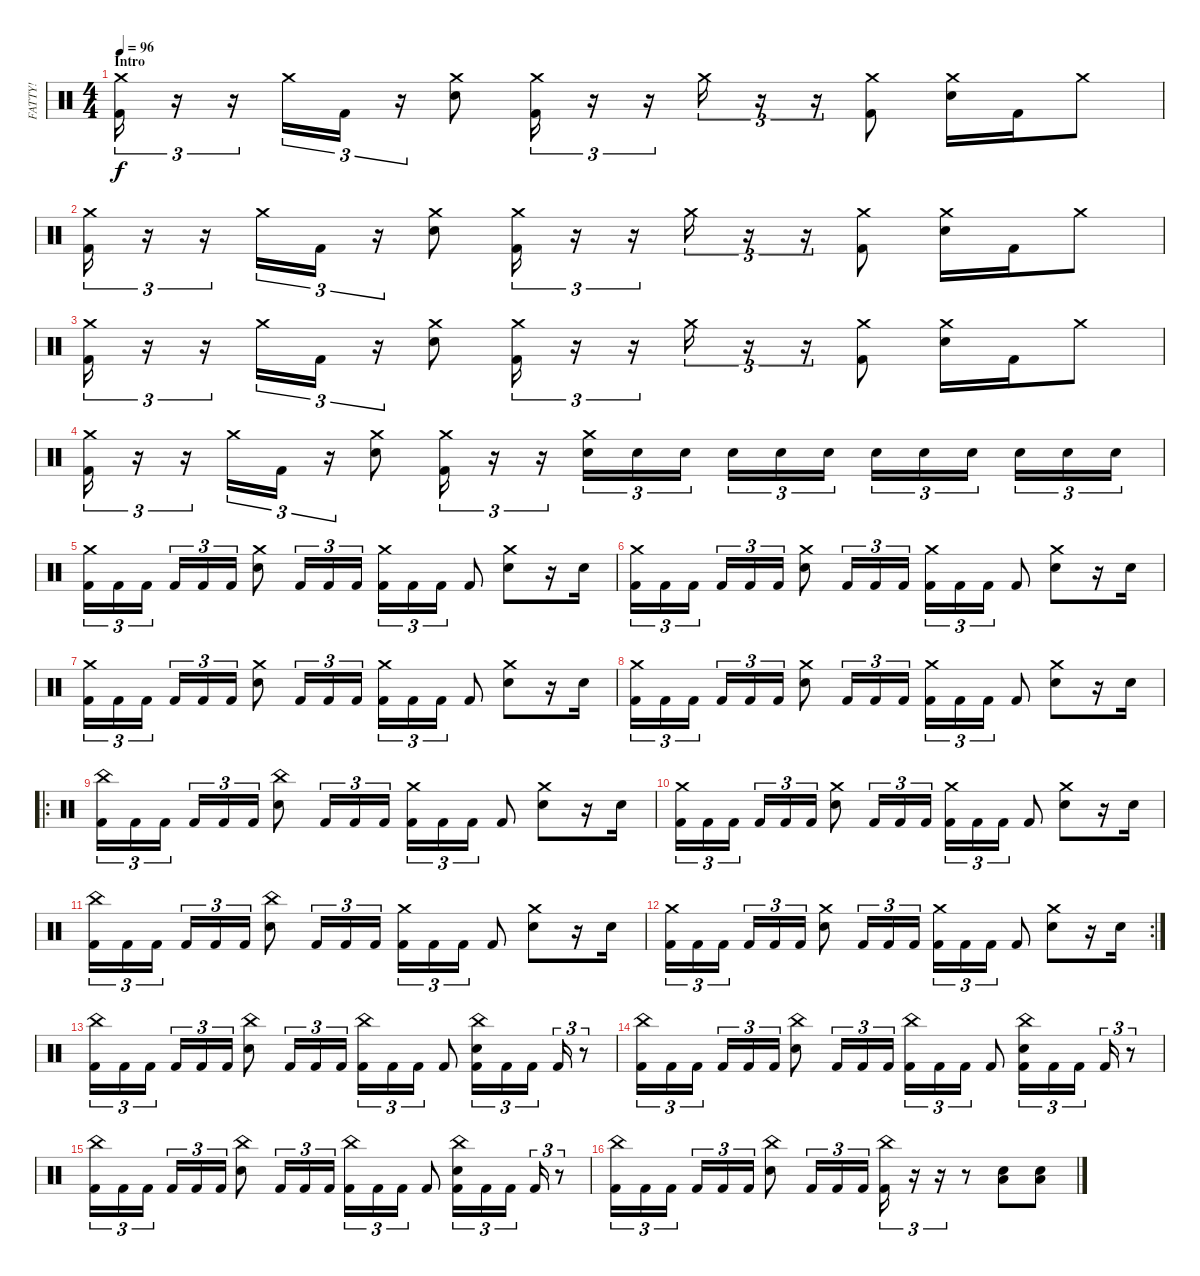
\track ("FATTY!" "FATTY!") {instrument percussion}
\staff {score}
\articulation defaults
\ts (4 4)
\section ("" "Intro")
\tempo 96
\clef neutral
\ks c
("Crash medium (hit)" "Kick (hit) 2").16{tu (3 2) dy f} r.16{tu (3 2)} r.16{tu (3 2)} "Crash medium (hit)".16{tu (3 2)} "Kick (hit) 2".16{tu (3 2)} r.16{tu (3 2)} ("Crash medium (hit)" "Electric Snare (hit)").8 ("Crash medium (hit)" "Kick (hit) 2").16{tu (3 2)} r.16{tu (3 2)} r.16{tu (3 2)} "Crash medium (hit)".16{tu (3 2)} r.16{tu (3 2)} r.16{tu (3 2)} ("Crash medium (hit)" "Kick (hit) 2").8 ("Crash medium (hit)" "Electric Snare (hit)").16 "Kick (hit) 2".16 "Crash medium (hit)".8 |
("Crash medium (hit)" "Kick (hit) 2").16{tu (3 2)} r.16{tu (3 2)} r.16{tu (3 2)} "Crash medium (hit)".16{tu (3 2)} "Kick (hit) 2".16{tu (3 2)} r.16{tu (3 2)} ("Crash medium (hit)" "Electric Snare (hit)").8 ("Crash medium (hit)" "Kick (hit) 2").16{tu (3 2)} r.16{tu (3 2)} r.16{tu (3 2)} "Crash medium (hit)".16{tu (3 2)} r.16{tu (3 2)} r.16{tu (3 2)} ("Crash medium (hit)" "Kick (hit) 2").8 ("Crash medium (hit)" "Electric Snare (hit)").16 "Kick (hit) 2".16 "Crash medium (hit)".8 |
("Crash medium (hit)" "Kick (hit) 2").16{tu (3 2)} r.16{tu (3 2)} r.16{tu (3 2)} "Crash medium (hit)".16{tu (3 2)} "Kick (hit) 2".16{tu (3 2)} r.16{tu (3 2)} ("Crash medium (hit)" "Electric Snare (hit)").8 ("Crash medium (hit)" "Kick (hit) 2").16{tu (3 2)} r.16{tu (3 2)} r.16{tu (3 2)} "Crash medium (hit)".16{tu (3 2)} r.16{tu (3 2)} r.16{tu (3 2)} ("Crash medium (hit)" "Kick (hit) 2").8 ("Crash medium (hit)" "Electric Snare (hit)").16 "Kick (hit) 2".16 "Crash medium (hit)".8 |
("Crash medium (hit)" "Kick (hit) 2").16{tu (3 2)} r.16{tu (3 2)} r.16{tu (3 2)} "Crash medium (hit)".16{tu (3 2)} "Kick (hit) 2".16{tu (3 2)} r.16{tu (3 2)} ("Crash medium (hit)" "Electric Snare (hit)").8 ("Crash medium (hit)" "Kick (hit) 2").16{tu (3 2)} r.16{tu (3 2)} r.16{tu (3 2)} ("Crash medium (hit)" "Electric Snare (hit)").16{tu (3 2) volume 7} "Electric Snare (hit)".16{tu (3 2) volume 8} "Electric Snare (hit)".16{tu (3 2) volume 9} "Electric Snare (hit)".16{tu (3 2) volume 10} "Electric Snare (hit)".16{tu (3 2) volume 11} "Electric Snare (hit)".16{tu (3 2) volume 12} "Electric Snare (hit)".16{tu (3 2) volume 13} "Electric Snare (hit)".16{tu (3 2)} "Electric Snare (hit)".16{tu (3 2)} "Electric Snare (hit)".16{tu (3 2)} "Electric Snare (hit)".16{tu (3 2)} "Electric Snare (hit)".16{tu (3 2)} |
("Crash medium (hit)" "Kick (hit) 2").16{tu (3 2)} "Kick (hit) 2".16{tu (3 2)} "Kick (hit) 2".16{tu (3 2)} "Kick (hit) 2".16{tu (3 2)} "Kick (hit) 2".16{tu (3 2)} "Kick (hit) 2".16{tu (3 2)} ("Crash medium (hit)" "Electric Snare (hit)").8 "Kick (hit) 2".16{tu (3 2)} "Kick (hit) 2".16{tu (3 2)} "Kick (hit) 2".16{tu (3 2)} ("Crash medium (hit)" "Kick (hit) 2").16{tu (3 2)} "Kick (hit) 2".16{tu (3 2)} "Kick (hit) 2".16{tu (3 2)} "Kick (hit) 2".8 ("Crash medium (hit)" "Electric Snare (hit)").8 r.16 "Electric Snare (hit)".16 |
("Crash medium (hit)" "Kick (hit) 2").16{tu (3 2)} "Kick (hit) 2".16{tu (3 2)} "Kick (hit) 2".16{tu (3 2)} "Kick (hit) 2".16{tu (3 2)} "Kick (hit) 2".16{tu (3 2)} "Kick (hit) 2".16{tu (3 2)} ("Crash medium (hit)" "Electric Snare (hit)").8 "Kick (hit) 2".16{tu (3 2)} "Kick (hit) 2".16{tu (3 2)} "Kick (hit) 2".16{tu (3 2)} ("Crash medium (hit)" "Kick (hit) 2").16{tu (3 2)} "Kick (hit) 2".16{tu (3 2)} "Kick (hit) 2".16{tu (3 2)} "Kick (hit) 2".8 ("Crash medium (hit)" "Electric Snare (hit)").8 r.16 "Electric Snare (hit)".16 |
("Crash medium (hit)" "Kick (hit) 2").16{tu (3 2)} "Kick (hit) 2".16{tu (3 2)} "Kick (hit) 2".16{tu (3 2)} "Kick (hit) 2".16{tu (3 2)} "Kick (hit) 2".16{tu (3 2)} "Kick (hit) 2".16{tu (3 2)} ("Crash medium (hit)" "Electric Snare (hit)").8 "Kick (hit) 2".16{tu (3 2)} "Kick (hit) 2".16{tu (3 2)} "Kick (hit) 2".16{tu (3 2)} ("Crash medium (hit)" "Kick (hit) 2").16{tu (3 2)} "Kick (hit) 2".16{tu (3 2)} "Kick (hit) 2".16{tu (3 2)} "Kick (hit) 2".8 ("Crash medium (hit)" "Electric Snare (hit)").8 r.16 "Electric Snare (hit)".16 |
("Crash medium (hit)" "Kick (hit) 2").16{tu (3 2)} "Kick (hit) 2".16{tu (3 2)} "Kick (hit) 2".16{tu (3 2)} "Kick (hit) 2".16{tu (3 2)} "Kick (hit) 2".16{tu (3 2)} "Kick (hit) 2".16{tu (3 2)} ("Crash medium (hit)" "Electric Snare (hit)").8 "Kick (hit) 2".16{tu (3 2)} "Kick (hit) 2".16{tu (3 2)} "Kick (hit) 2".16{tu (3 2)} ("Crash medium (hit)" "Kick (hit) 2").16{tu (3 2)} "Kick (hit) 2".16{tu (3 2)} "Kick (hit) 2".16{tu (3 2)} "Kick (hit) 2".8 ("Crash medium (hit)" "Electric Snare (hit)").8 r.16 "Electric Snare (hit)".16 |
\ro
("China (hit)" "Kick (hit) 2").16{tu (3 2)} "Kick (hit) 2".16{tu (3 2)} "Kick (hit) 2".16{tu (3 2)} "Kick (hit) 2".16{tu (3 2)} "Kick (hit) 2".16{tu (3 2)} "Kick (hit) 2".16{tu (3 2)} ("China (hit)" "Electric Snare (hit)").8 "Kick (hit) 2".16{tu (3 2)} "Kick (hit) 2".16{tu (3 2)} "Kick (hit) 2".16{tu (3 2)} ("Crash medium (hit)" "Kick (hit) 2").16{tu (3 2)} "Kick (hit) 2".16{tu (3 2)} "Kick (hit) 2".16{tu (3 2)} "Kick (hit) 2".8 ("Crash medium (hit)" "Electric Snare (hit)").8 r.16 "Electric Snare (hit)".16 |
("Crash medium (hit)" "Kick (hit) 2").16{tu (3 2)} "Kick (hit) 2".16{tu (3 2)} "Kick (hit) 2".16{tu (3 2)} "Kick (hit) 2".16{tu (3 2)} "Kick (hit) 2".16{tu (3 2)} "Kick (hit) 2".16{tu (3 2)} ("Crash medium (hit)" "Electric Snare (hit)").8 "Kick (hit) 2".16{tu (3 2)} "Kick (hit) 2".16{tu (3 2)} "Kick (hit) 2".16{tu (3 2)} ("Crash medium (hit)" "Kick (hit) 2").16{tu (3 2)} "Kick (hit) 2".16{tu (3 2)} "Kick (hit) 2".16{tu (3 2)} "Kick (hit) 2".8 ("Crash medium (hit)" "Electric Snare (hit)").8 r.16 "Electric Snare (hit)".16 |
("China (hit)" "Kick (hit) 2").16{tu (3 2)} "Kick (hit) 2".16{tu (3 2)} "Kick (hit) 2".16{tu (3 2)} "Kick (hit) 2".16{tu (3 2)} "Kick (hit) 2".16{tu (3 2)} "Kick (hit) 2".16{tu (3 2)} ("China (hit)" "Electric Snare (hit)").8 "Kick (hit) 2".16{tu (3 2)} "Kick (hit) 2".16{tu (3 2)} "Kick (hit) 2".16{tu (3 2)} ("Crash medium (hit)" "Kick (hit) 2").16{tu (3 2)} "Kick (hit) 2".16{tu (3 2)} "Kick (hit) 2".16{tu (3 2)} "Kick (hit) 2".8 ("Crash medium (hit)" "Electric Snare (hit)").8 r.16 "Electric Snare (hit)".16 |
\rc 2
("Crash medium (hit)" "Kick (hit) 2").16{tu (3 2)} "Kick (hit) 2".16{tu (3 2)} "Kick (hit) 2".16{tu (3 2)} "Kick (hit) 2".16{tu (3 2)} "Kick (hit) 2".16{tu (3 2)} "Kick (hit) 2".16{tu (3 2)} ("Crash medium (hit)" "Electric Snare (hit)").8 "Kick (hit) 2".16{tu (3 2)} "Kick (hit) 2".16{tu (3 2)} "Kick (hit) 2".16{tu (3 2)} ("Crash medium (hit)" "Kick (hit) 2").16{tu (3 2)} "Kick (hit) 2".16{tu (3 2)} "Kick (hit) 2".16{tu (3 2)} "Kick (hit) 2".8 ("Crash medium (hit)" "Electric Snare (hit)").8 r.16 "Electric Snare (hit)".16 |
("China (hit)" "Kick (hit) 2").16{tu (3 2)} "Kick (hit) 2".16{tu (3 2)} "Kick (hit) 2".16{tu (3 2)} "Kick (hit) 2".16{tu (3 2)} "Kick (hit) 2".16{tu (3 2)} "Kick (hit) 2".16{tu (3 2)} ("China (hit)" "Electric Snare (hit)").8 "Kick (hit) 2".16{tu (3 2)} "Kick (hit) 2".16{tu (3 2)} "Kick (hit) 2".16{tu (3 2)} ("China (hit)" "Kick (hit) 2").16{tu (3 2)} "Kick (hit) 2".16{tu (3 2)} "Kick (hit) 2".16{tu (3 2)} "Kick (hit) 2".8 ("China (hit)" "Electric Snare (hit)" "Kick (hit) 2").16{tu (3 2)} "Kick (hit) 2".16{tu (3 2)} "Kick (hit) 2".16{tu (3 2)} "Kick (hit) 2".16{tu (3 2)} r.8{tu (3 2)} |
("China (hit)" "Kick (hit) 2").16{tu (3 2)} "Kick (hit) 2".16{tu (3 2)} "Kick (hit) 2".16{tu (3 2)} "Kick (hit) 2".16{tu (3 2)} "Kick (hit) 2".16{tu (3 2)} "Kick (hit) 2".16{tu (3 2)} ("China (hit)" "Electric Snare (hit)").8 "Kick (hit) 2".16{tu (3 2)} "Kick (hit) 2".16{tu (3 2)} "Kick (hit) 2".16{tu (3 2)} ("China (hit)" "Kick (hit) 2").16{tu (3 2)} "Kick (hit) 2".16{tu (3 2)} "Kick (hit) 2".16{tu (3 2)} "Kick (hit) 2".8 ("China (hit)" "Electric Snare (hit)" "Kick (hit) 2").16{tu (3 2)} "Kick (hit) 2".16{tu (3 2)} "Kick (hit) 2".16{tu (3 2)} "Kick (hit) 2".16{tu (3 2)} r.8{tu (3 2)} |
("China (hit)" "Kick (hit) 2").16{tu (3 2)} "Kick (hit) 2".16{tu (3 2)} "Kick (hit) 2".16{tu (3 2)} "Kick (hit) 2".16{tu (3 2)} "Kick (hit) 2".16{tu (3 2)} "Kick (hit) 2".16{tu (3 2)} ("China (hit)" "Electric Snare (hit)").8 "Kick (hit) 2".16{tu (3 2)} "Kick (hit) 2".16{tu (3 2)} "Kick (hit) 2".16{tu (3 2)} ("China (hit)" "Kick (hit) 2").16{tu (3 2)} "Kick (hit) 2".16{tu (3 2)} "Kick (hit) 2".16{tu (3 2)} "Kick (hit) 2".8 ("China (hit)" "Electric Snare (hit)" "Kick (hit) 2").16{tu (3 2)} "Kick (hit) 2".16{tu (3 2)} "Kick (hit) 2".16{tu (3 2)} "Kick (hit) 2".16{tu (3 2)} r.8{tu (3 2)} |
("China (hit)" "Kick (hit) 2").16{tu (3 2)} "Kick (hit) 2".16{tu (3 2)} "Kick (hit) 2".16{tu (3 2)} "Kick (hit) 2".16{tu (3 2)} "Kick (hit) 2".16{tu (3 2)} "Kick (hit) 2".16{tu (3 2)} ("China (hit)" "Electric Snare (hit)").8 "Kick (hit) 2".16{tu (3 2)} "Kick (hit) 2".16{tu (3 2)} "Kick (hit) 2".16{tu (3 2)} ("China (hit)" "Kick (hit) 2").16{tu (3 2)} r.16{tu (3 2)} r.16{tu (3 2)} r.8 ("Low Tom (hit)" "Electric Snare (hit)").8 ("Low Tom (hit)" "Electric Snare (hit)").8
